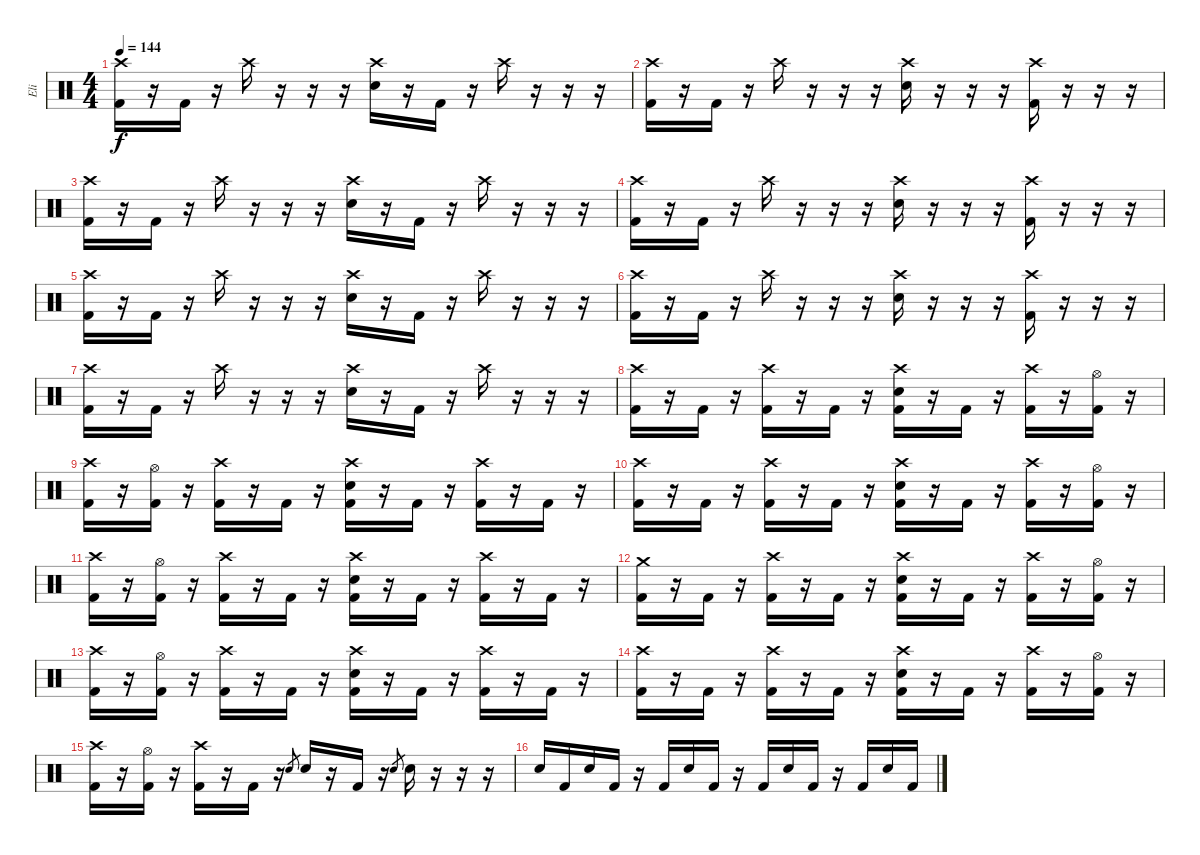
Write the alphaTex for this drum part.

\track ("Eli" "Eli") {instrument percussion}
\staff {score}
\articulation defaults
\ts (4 4)
\tempo 144
\clef neutral
\ks c
("Crash high (hit)" "Kick (hit) 2").16{dy f} r.16 "Kick (hit) 2".16 r.16 "Crash high (hit)".16 r.16 r.16 r.16 ("Crash high (hit)" "Snare (hit) 2").16 r.16 "Kick (hit) 2".16 r.16 "Crash high (hit)".16 r.16 r.16 r.16 |
("Crash high (hit)" "Kick (hit) 2").16 r.16 "Kick (hit) 2".16 r.16 "Crash high (hit)".16 r.16 r.16 r.16 ("Crash high (hit)" "Snare (hit) 2").16 r.16 r.16 r.16 ("Crash high (hit)" "Kick (hit) 2").16 r.16 r.16 r.16 |
("Crash high (hit)" "Kick (hit) 2").16 r.16 "Kick (hit) 2".16 r.16 "Crash high (hit)".16 r.16 r.16 r.16 ("Crash high (hit)" "Snare (hit) 2").16 r.16 "Kick (hit) 2".16 r.16 "Crash high (hit)".16 r.16 r.16 r.16 |
("Crash high (hit)" "Kick (hit) 2").16 r.16 "Kick (hit) 2".16 r.16 "Crash high (hit)".16 r.16 r.16 r.16 ("Crash high (hit)" "Snare (hit) 2").16 r.16 r.16 r.16 ("Crash high (hit)" "Kick (hit) 2").16 r.16 r.16 r.16 |
("Crash high (hit)" "Kick (hit) 2").16 r.16 "Kick (hit) 2".16 r.16 "Crash high (hit)".16 r.16 r.16 r.16 ("Crash high (hit)" "Snare (hit) 2").16 r.16 "Kick (hit) 2".16 r.16 "Crash high (hit)".16 r.16 r.16 r.16 |
("Crash high (hit)" "Kick (hit) 2").16 r.16 "Kick (hit) 2".16 r.16 "Crash high (hit)".16 r.16 r.16 r.16 ("Crash high (hit)" "Snare (hit) 2").16 r.16 r.16 r.16 ("Crash high (hit)" "Kick (hit) 2").16 r.16 r.16 r.16 |
("Crash high (hit)" "Kick (hit) 2").16 r.16 "Kick (hit) 2".16 r.16 "Crash high (hit)".16 r.16 r.16 r.16 ("Crash high (hit)" "Snare (hit) 2").16 r.16 "Kick (hit) 2".16 r.16 "Crash high (hit)".16 r.16 r.16 r.16 |
("Crash high (hit)" "Kick (hit) 2").16 r.16 "Kick (hit) 2".16 r.16 ("Crash high (hit)" "Kick (hit) 2").16 r.16 "Kick (hit) 2".16 r.16 ("Crash high (hit)" "Snare (hit) 2" "Kick (hit) 2").16 r.16 "Kick (hit) 2".16 r.16 ("Crash high (hit)" "Kick (hit) 2").16 r.16 ("Hi-Hat (open)" "Kick (hit) 2").16 r.16 |
("Crash high (hit)" "Kick (hit) 2").16 r.16 ("Hi-Hat (open)" "Kick (hit) 2").16 r.16 ("Crash high (hit)" "Kick (hit) 2").16 r.16 "Kick (hit) 2".16 r.16 ("Crash high (hit)" "Snare (hit) 2" "Kick (hit) 2").16 r.16 "Kick (hit) 2".16 r.16 ("Crash high (hit)" "Kick (hit) 2").16 r.16 "Kick (hit) 2".16 r.16 |
("Crash high (hit)" "Kick (hit) 2").16 r.16 "Kick (hit) 2".16 r.16 ("Crash high (hit)" "Kick (hit) 2").16 r.16 "Kick (hit) 2".16 r.16 ("Crash high (hit)" "Snare (hit) 2" "Kick (hit) 2").16 r.16 "Kick (hit) 2".16 r.16 ("Crash high (hit)" "Kick (hit) 2").16 r.16 ("Hi-Hat (open)" "Kick (hit) 2").16 r.16 |
("Crash high (hit)" "Kick (hit) 2").16 r.16 ("Hi-Hat (open)" "Kick (hit) 2").16 r.16 ("Crash high (hit)" "Kick (hit) 2").16 r.16 "Kick (hit) 2".16 r.16 ("Crash high (hit)" "Snare (hit) 2" "Kick (hit) 2").16 r.16 "Kick (hit) 2".16 r.16 ("Crash high (hit)" "Kick (hit) 2").16 r.16 "Kick (hit) 2".16 r.16 |
("Crash medium (hit)" "Kick (hit) 2").16 r.16 "Kick (hit) 2".16 r.16 ("Crash high (hit)" "Kick (hit) 2").16 r.16 "Kick (hit) 2".16 r.16 ("Crash high (hit)" "Snare (hit) 2" "Kick (hit) 2").16 r.16 "Kick (hit) 2".16 r.16 ("Crash high (hit)" "Kick (hit) 2").16 r.16 ("Hi-Hat (open)" "Kick (hit) 2").16 r.16 |
("Crash high (hit)" "Kick (hit) 2").16 r.16 ("Hi-Hat (open)" "Kick (hit) 2").16 r.16 ("Crash high (hit)" "Kick (hit) 2").16 r.16 "Kick (hit) 2".16 r.16 ("Crash high (hit)" "Snare (hit) 2" "Kick (hit) 2").16 r.16 "Kick (hit) 2".16 r.16 ("Crash high (hit)" "Kick (hit) 2").16 r.16 "Kick (hit) 2".16 r.16 |
("Crash high (hit)" "Kick (hit) 2").16 r.16 "Kick (hit) 2".16 r.16 ("Crash high (hit)" "Kick (hit) 2").16 r.16 "Kick (hit) 2".16 r.16 ("Crash high (hit)" "Snare (hit) 2" "Kick (hit) 2").16 r.16 "Kick (hit) 2".16 r.16 ("Crash high (hit)" "Kick (hit) 2").16 r.16 ("Hi-Hat (open)" "Kick (hit) 2").16 r.16 |
("Crash high (hit)" "Kick (hit) 2").16 r.16 ("Hi-Hat (open)" "Kick (hit) 2").16 r.16 ("Crash high (hit)" "Kick (hit) 2").16 r.16 "Kick (hit) 2".16 r.16 "Snare (hit) 2".8{gr} "Snare (hit) 2".16 r.16 "Kick (hit) 2".16 r.16 "Snare (hit) 2".8{gr} "Snare (hit) 2".16 r.16 r.16 r.16 |
"Snare (hit) 2".16 "Kick (hit) 2".16 "Snare (hit) 2".16 "Kick (hit) 2".16 r.16 "Kick (hit) 2".16 "Snare (hit) 2".16 "Kick (hit) 2".16 r.16 "Kick (hit) 2".16 "Snare (hit) 2".16 "Kick (hit) 2".16 r.16 "Kick (hit) 2".16 "Snare (hit) 2".16 "Kick (hit) 2".16
